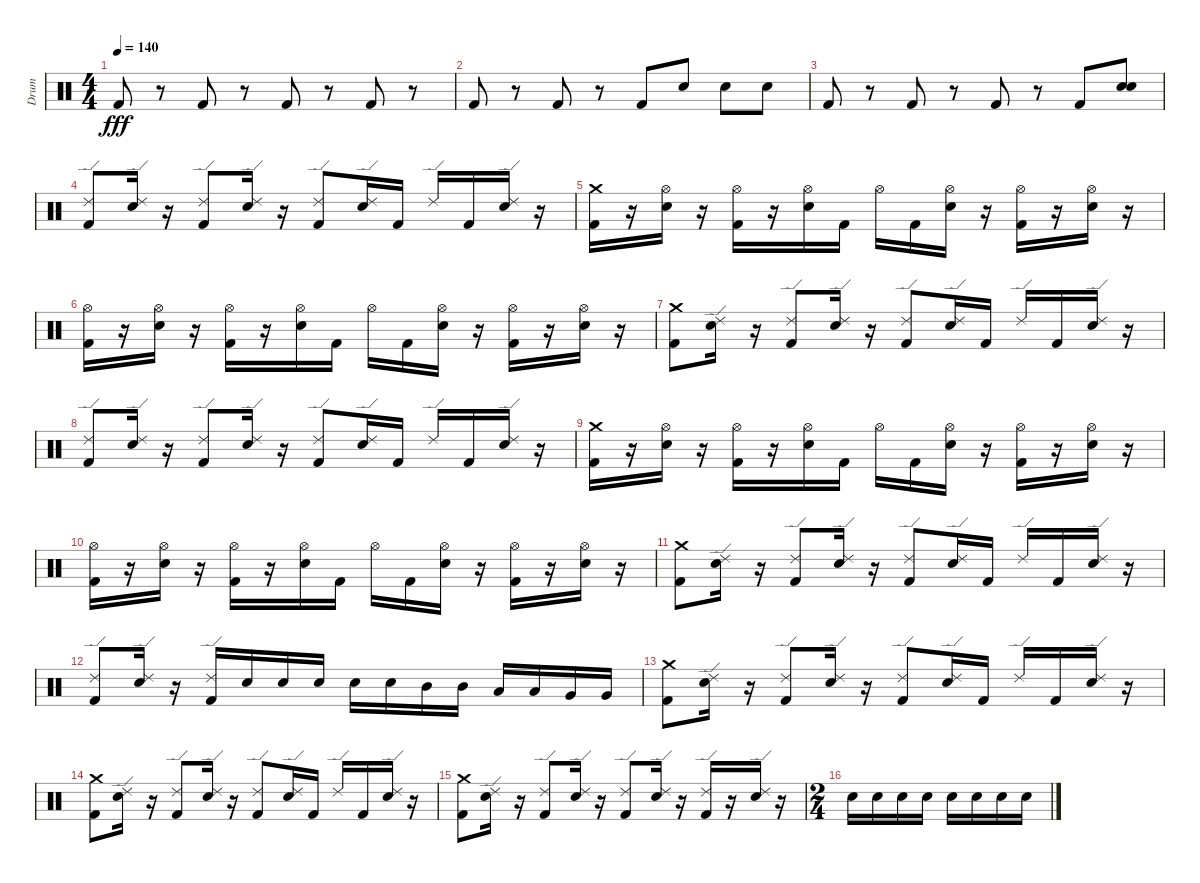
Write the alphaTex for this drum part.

\track ("Drum" "Drum") {instrument percussion}
\staff {score}
\articulation defaults
\ts (4 4)
\tempo 140
\clef neutral
\ks c "Kick (hit) 2".8{dy fff}
r.8 "Kick (hit) 2".8 r.8 "Kick (hit) 2".8 r.8 "Kick (hit) 2".8 r.8 |
"Kick (hit) 2".8 r.8 "Kick (hit) 2".8 r.8 "Kick (hit) 2".8 "Snare (hit) 2".8 "Snare (hit) 2".8 "Snare (hit) 2".8 |
"Kick (hit) 2".8 r.8 "Kick (hit) 2".8 r.8 "Kick (hit) 2".8 r.8 "Kick (hit) 2".8 ("Snare (hit) 2" "Snare (hit) 2").8 |
("Kick (hit) 2" "Ride (edge) 2").8 ("Snare (hit) 2" "Ride (edge) 2").16 r.16 ("Kick (hit) 2" "Ride (edge) 2").8 ("Snare (hit) 2" "Ride (edge) 2").16 r.16 ("Kick (hit) 2" "Ride (edge) 2").8 ("Snare (hit) 2" "Ride (edge) 2").16 "Kick (hit) 2".16 "Ride (edge) 2".16 "Kick (hit) 2".16 ("Snare (hit) 2" "Ride (edge) 2").16 r.16 |
("Kick (hit) 2" "Crash medium (hit)").16 r.16 ("Hi-Hat (open)" "Snare (hit) 2").16 r.16 ("Hi-Hat (open)" "Kick (hit) 2").16 r.16 ("Hi-Hat (open)" "Snare (hit) 2").16 "Kick (hit) 2".16 "Hi-Hat (open)".16 "Kick (hit) 2".16 ("Hi-Hat (open)" "Snare (hit) 2").16 r.16 ("Hi-Hat (open)" "Kick (hit) 2").16 r.16 ("Hi-Hat (open)" "Snare (hit) 2").16 r.16 |
("Hi-Hat (open)" "Kick (hit) 2").16 r.16 ("Hi-Hat (open)" "Snare (hit) 2").16 r.16 ("Hi-Hat (open)" "Kick (hit) 2").16 r.16 ("Hi-Hat (open)" "Snare (hit) 2").16 "Kick (hit) 2".16 "Hi-Hat (open)".16 "Kick (hit) 2".16 ("Hi-Hat (open)" "Snare (hit) 2").16 r.16 ("Hi-Hat (open)" "Kick (hit) 2").16 r.16 ("Hi-Hat (open)" "Snare (hit) 2").16 r.16 |
("Kick (hit) 2" "Crash medium (hit)").8 ("Snare (hit) 2" "Ride (edge) 2").16 r.16 ("Kick (hit) 2" "Ride (edge) 2").8 ("Snare (hit) 2" "Ride (edge) 2").16 r.16 ("Kick (hit) 2" "Ride (edge) 2").8 ("Snare (hit) 2" "Ride (edge) 2").16 "Kick (hit) 2".16 "Ride (edge) 2".16 "Kick (hit) 2".16 ("Snare (hit) 2" "Ride (edge) 2").16 r.16 |
("Kick (hit) 2" "Ride (edge) 2").8 ("Snare (hit) 2" "Ride (edge) 2").16 r.16 ("Kick (hit) 2" "Ride (edge) 2").8 ("Snare (hit) 2" "Ride (edge) 2").16 r.16 ("Kick (hit) 2" "Ride (edge) 2").8 ("Snare (hit) 2" "Ride (edge) 2").16 "Kick (hit) 2".16 "Ride (edge) 2".16 "Kick (hit) 2".16 ("Snare (hit) 2" "Ride (edge) 2").16 r.16 |
("Kick (hit) 2" "Crash medium (hit)").16 r.16 ("Hi-Hat (open)" "Snare (hit) 2").16 r.16 ("Hi-Hat (open)" "Kick (hit) 2").16 r.16 ("Hi-Hat (open)" "Snare (hit) 2").16 "Kick (hit) 2".16 "Hi-Hat (open)".16 "Kick (hit) 2".16 ("Hi-Hat (open)" "Snare (hit) 2").16 r.16 ("Hi-Hat (open)" "Kick (hit) 2").16 r.16 ("Hi-Hat (open)" "Snare (hit) 2").16 r.16 |
("Hi-Hat (open)" "Kick (hit) 2").16 r.16 ("Hi-Hat (open)" "Snare (hit) 2").16 r.16 ("Hi-Hat (open)" "Kick (hit) 2").16 r.16 ("Hi-Hat (open)" "Snare (hit) 2").16 "Kick (hit) 2".16 "Hi-Hat (open)".16 "Kick (hit) 2".16 ("Hi-Hat (open)" "Snare (hit) 2").16 r.16 ("Hi-Hat (open)" "Kick (hit) 2").16 r.16 ("Hi-Hat (open)" "Snare (hit) 2").16 r.16 |
("Kick (hit) 2" "Crash medium (hit)").8 ("Snare (hit) 2" "Ride (edge) 2").16 r.16 ("Kick (hit) 2" "Ride (edge) 2").8 ("Snare (hit) 2" "Ride (edge) 2").16 r.16 ("Kick (hit) 2" "Ride (edge) 2").8 ("Snare (hit) 2" "Ride (edge) 2").16 "Kick (hit) 2".16 "Ride (edge) 2".16 "Kick (hit) 2".16 ("Snare (hit) 2" "Ride (edge) 2").16 r.16 |
("Kick (hit) 2" "Ride (edge) 2").8 ("Snare (hit) 2" "Ride (edge) 2").16 r.16 ("Kick (hit) 2" "Ride (edge) 2").16 "Snare (hit) 2".16 "Snare (hit) 2".16 "Snare (hit) 2".16 "Snare (hit) 2".16 "Snare (hit) 2".16 "Mid Tom (hit)".16 "Mid Tom (hit)".16 "Low Tom (hit)".16 "Low Tom (hit)".16 "Very Low Tom (hit)".16 "Very Low Tom (hit)".16 |
("Kick (hit) 2" "Crash medium (hit)").8 ("Snare (hit) 2" "Ride (edge) 2").16 r.16 ("Kick (hit) 2" "Ride (edge) 2").8 ("Snare (hit) 2" "Ride (edge) 2").16 r.16 ("Kick (hit) 2" "Ride (edge) 2").8 ("Snare (hit) 2" "Ride (edge) 2").16 "Kick (hit) 2".16 "Ride (edge) 2".16 "Kick (hit) 2".16 ("Snare (hit) 2" "Ride (edge) 2").16 r.16 |
("Kick (hit) 2" "Crash medium (hit)").8 ("Snare (hit) 2" "Ride (edge) 2").16 r.16 ("Kick (hit) 2" "Ride (edge) 2").8 ("Snare (hit) 2" "Ride (edge) 2").16 r.16 ("Kick (hit) 2" "Ride (edge) 2").8 ("Snare (hit) 2" "Ride (edge) 2").16 "Kick (hit) 2".16 "Ride (edge) 2".16 "Kick (hit) 2".16 ("Snare (hit) 2" "Ride (edge) 2").16 r.16 |
("Kick (hit) 2" "Crash medium (hit)").8 ("Snare (hit) 2" "Ride (edge) 2").16 r.16 ("Kick (hit) 2" "Ride (edge) 2").8 ("Snare (hit) 2" "Ride (edge) 2").16 r.16 ("Kick (hit) 2" "Ride (edge) 2").8 ("Snare (hit) 2" "Ride (edge) 2").16 r.16 ("Ride (edge) 2" "Kick (hit) 2").16 r.16 ("Snare (hit) 2" "Ride (edge) 2").16 r.16 |
\ts (2 4)
"Snare (hit) 2".16 "Snare (hit) 2".16 "Snare (hit) 2".16 "Snare (hit) 2".16 "Snare (hit) 2".16 "Snare (hit) 2".16 "Snare (hit) 2".16 "Snare (hit) 2".16
